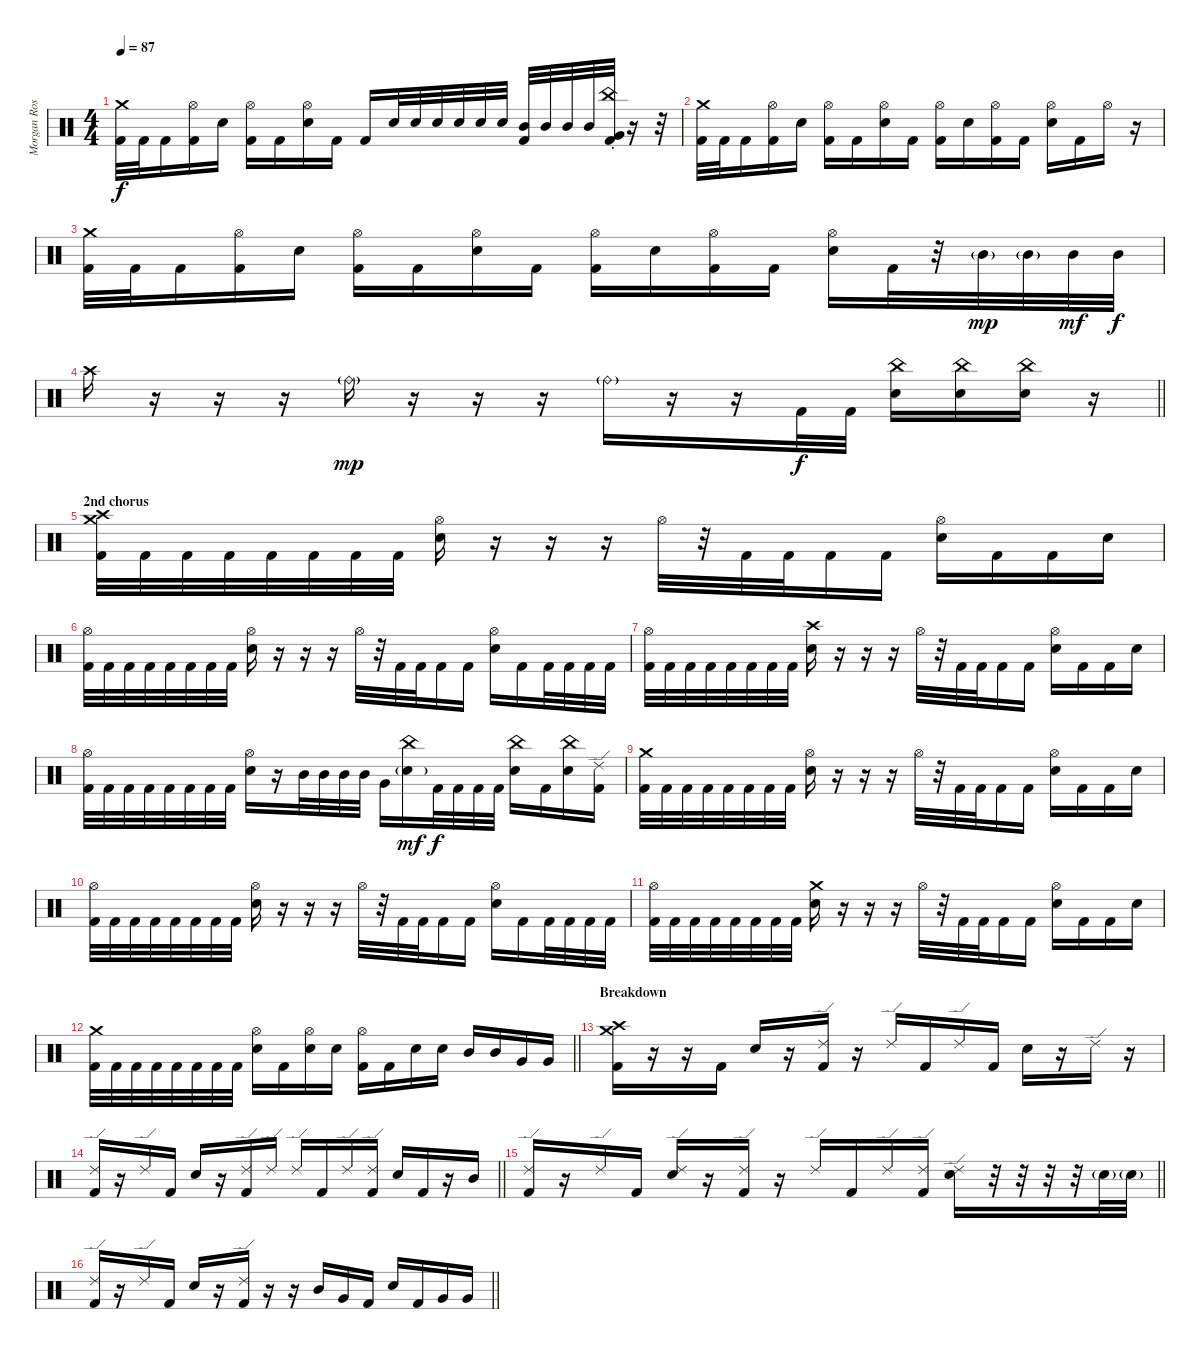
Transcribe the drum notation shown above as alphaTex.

\track ("Morgan Rose" "Morgan Ros") {instrument percussion}
\staff {score}
\articulation defaults
\ts (4 4)
\tempo 87
\clef neutral
\ks c
("Crash medium (hit)" "Kick (hit) 2").32{dy f} "Kick (hit) 2".32 "Kick (hit) 2".16 ("Hi-Hat (open)" "Kick (hit) 2").16 "Snare (hit) 2".16 ("Hi-Hat (open)" "Kick (hit) 2").16 "Kick (hit) 2".16 ("Hi-Hat (open)" "Snare (hit) 2").16 "Kick (hit) 2".16 "Kick (hit) 2".16 "Snare (hit) 2".32 "Snare (hit) 2".32 "Snare (hit) 2".32 "Snare (hit) 2".32 "Snare (hit) 2".32 "Snare (hit) 2".32 ("Mid Tom (hit)" "Kick (hit) 2").32 "Mid Tom (hit)".32 "Mid Tom (hit)".32 "Mid Tom (hit)".32 ("China (hit)"{st} "Very Low Tom (hit)" "Kick (hit) 2").32 r.16 r.32 |
("Crash medium (hit)" "Kick (hit) 2").32 "Kick (hit) 2".32 "Kick (hit) 2".16 ("Hi-Hat (open)" "Kick (hit) 2").16 "Snare (hit) 2".16 ("Hi-Hat (open)" "Kick (hit) 2").16 "Kick (hit) 2".16 ("Hi-Hat (open)" "Snare (hit) 2").16 "Kick (hit) 2".16 ("Hi-Hat (open)" "Kick (hit) 2").16 "Snare (hit) 2".16 ("Hi-Hat (open)" "Kick (hit) 2").16 "Kick (hit) 2".16 ("Hi-Hat (open)" "Snare (hit) 2").16 "Kick (hit) 2".16 "Hi-Hat (open)".16 r.16 |
("Crash medium (hit)" "Kick (hit) 2").32 "Kick (hit) 2".32 "Kick (hit) 2".16 ("Hi-Hat (open)" "Kick (hit) 2").16 "Snare (hit) 2".16 ("Hi-Hat (open)" "Kick (hit) 2").16 "Kick (hit) 2".16 ("Hi-Hat (open)" "Snare (hit) 2").16 "Kick (hit) 2".16 ("Hi-Hat (open)" "Kick (hit) 2").16 "Snare (hit) 2".16 ("Hi-Hat (open)" "Kick (hit) 2").16 "Kick (hit) 2".16 ("Hi-Hat (open)" "Snare (hit) 2").16 "Kick (hit) 2".32 r.32 "Mid Tom (hit)"{g}.32{dy mp} "Mid Tom (hit)"{g}.32 "Mid Tom (hit)".32{dy mf} "Mid Tom (hit)".32{dy f} |
\barLineRight lightlight "Crash high (hit)".16
r.16 r.16 r.16 "Ride (bell)"{g}.16{dy mp} r.16 r.16 r.16 "Ride (bell)"{g}.16 r.16 r.16 "Kick (hit) 2".32{dy f} "Kick (hit) 2".32 ("China (hit)" "Snare (hit) 2").16 ("China (hit)" "Snare (hit) 2").16 ("China (hit)" "Snare (hit) 2").16 r.16 |
\section ("" "2nd chorus")
("Crash medium (hit)" "Crash high (hit)" "Kick (hit) 2").32 "Kick (hit) 2".32 "Kick (hit) 2".32 "Kick (hit) 2".32 "Kick (hit) 2".32 "Kick (hit) 2".32 "Kick (hit) 2".32 "Kick (hit) 2".32 ("Hi-Hat (open)" "Snare (hit) 2").16 r.16 r.16 r.16 "Hi-Hat (open)".32 r.32 "Kick (hit) 2".32 "Kick (hit) 2".32 "Kick (hit) 2".16 "Kick (hit) 2".16 ("Hi-Hat (open)" "Snare (hit) 2").16 "Kick (hit) 2".16 "Kick (hit) 2".16 "Snare (hit) 2".16 |
("Hi-Hat (open)" "Kick (hit) 2").32 "Kick (hit) 2".32 "Kick (hit) 2".32 "Kick (hit) 2".32 "Kick (hit) 2".32 "Kick (hit) 2".32 "Kick (hit) 2".32 "Kick (hit) 2".32 ("Hi-Hat (open)" "Snare (hit) 2").16 r.16 r.16 r.16 "Hi-Hat (open)".32 r.32 "Kick (hit) 2".32 "Kick (hit) 2".32 "Kick (hit) 2".16 "Kick (hit) 2".16 ("Hi-Hat (open)" "Snare (hit) 2").16 "Kick (hit) 2".16 "Kick (hit) 2".32 "Kick (hit) 2".32 "Kick (hit) 2".32 "Kick (hit) 2".32 |
("Hi-Hat (open)" "Kick (hit) 2").32 "Kick (hit) 2".32 "Kick (hit) 2".32 "Kick (hit) 2".32 "Kick (hit) 2".32 "Kick (hit) 2".32 "Kick (hit) 2".32 "Kick (hit) 2".32 ("Crash high (hit)" "Snare (hit) 2").16 r.16 r.16 r.16 "Hi-Hat (open)".32 r.32 "Kick (hit) 2".32 "Kick (hit) 2".32 "Kick (hit) 2".16 "Kick (hit) 2".16 ("Hi-Hat (open)" "Snare (hit) 2").16 "Kick (hit) 2".16 "Kick (hit) 2".16 "Snare (hit) 2".16 |
("Hi-Hat (open)" "Kick (hit) 2").32 "Kick (hit) 2".32 "Kick (hit) 2".32 "Kick (hit) 2".32 "Kick (hit) 2".32 "Kick (hit) 2".32 "Kick (hit) 2".32 "Kick (hit) 2".32 ("Hi-Hat (open)" "Snare (hit) 2").16 r.16 "Mid Tom (hit)".32 "Mid Tom (hit)".32 "Mid Tom (hit)".32 "Mid Tom (hit)".32 "Very Low Tom (hit)".16 ("China (hit)" "Snare (hit) 2"{g}).16{dy mf} "Kick (hit) 2".32{dy f} "Kick (hit) 2".32 "Kick (hit) 2".32 "Kick (hit) 2".32 ("China (hit)" "Snare (hit) 2").16 "Kick (hit) 2".16 ("China (hit)" "Snare (hit) 2").16 ("Ride (edge) 2" "Kick (hit) 2").16 |
("Crash medium (hit)" "Kick (hit) 2").32 "Kick (hit) 2".32 "Kick (hit) 2".32 "Kick (hit) 2".32 "Kick (hit) 2".32 "Kick (hit) 2".32 "Kick (hit) 2".32 "Kick (hit) 2".32 ("Hi-Hat (open)" "Snare (hit) 2").16 r.16 r.16 r.16 "Hi-Hat (open)".32 r.32 "Kick (hit) 2".32 "Kick (hit) 2".32 "Kick (hit) 2".16 "Kick (hit) 2".16 ("Hi-Hat (open)" "Snare (hit) 2").16 "Kick (hit) 2".16 "Kick (hit) 2".16 "Snare (hit) 2".16 |
("Hi-Hat (open)" "Kick (hit) 2").32 "Kick (hit) 2".32 "Kick (hit) 2".32 "Kick (hit) 2".32 "Kick (hit) 2".32 "Kick (hit) 2".32 "Kick (hit) 2".32 "Kick (hit) 2".32 ("Hi-Hat (open)" "Snare (hit) 2").16 r.16 r.16 r.16 "Hi-Hat (open)".32 r.32 "Kick (hit) 2".32 "Kick (hit) 2".32 "Kick (hit) 2".16 "Kick (hit) 2".16 ("Hi-Hat (open)" "Snare (hit) 2").16 "Kick (hit) 2".16 "Kick (hit) 2".32 "Kick (hit) 2".32 "Kick (hit) 2".32 "Kick (hit) 2".32 |
("Hi-Hat (open)" "Kick (hit) 2").32 "Kick (hit) 2".32 "Kick (hit) 2".32 "Kick (hit) 2".32 "Kick (hit) 2".32 "Kick (hit) 2".32 "Kick (hit) 2".32 "Kick (hit) 2".32 ("Crash medium (hit)" "Snare (hit) 2").16 r.16 r.16 r.16 "Hi-Hat (open)".32 r.32 "Kick (hit) 2".32 "Kick (hit) 2".32 "Kick (hit) 2".16 "Kick (hit) 2".16 ("Hi-Hat (open)" "Snare (hit) 2").16 "Kick (hit) 2".16 "Kick (hit) 2".16 "Snare (hit) 2".16 |
\barLineRight lightlight
("Crash medium (hit)" "Kick (hit) 2").32 "Kick (hit) 2".32 "Kick (hit) 2".32 "Kick (hit) 2".32 "Kick (hit) 2".32 "Kick (hit) 2".32 "Kick (hit) 2".32 "Kick (hit) 2".32 ("Hi-Hat (open)" "Snare (hit) 2").16 "Kick (hit) 2".16 ("Hi-Hat (open)" "Snare (hit) 2").16 "Snare (hit) 2".16 ("Hi-Hat (open)" "Kick (hit) 2").16 "Kick (hit) 2".16 "Snare (hit) 2".16 "Snare (hit) 2".16 "Mid Tom (hit)".16 "Mid Tom (hit)".16 "Very Low Tom (hit)".16 "Very Low Tom (hit)".16 |
\section ("" "Breakdown")
("Crash medium (hit)" "Crash high (hit)" "Kick (hit) 2").16 r.16 r.16 "Kick (hit) 2".16 "Snare (hit) 2".16 r.16 ("Ride (edge) 2" "Kick (hit) 2").16 r.16 "Ride (edge) 2".16 "Kick (hit) 2".16 "Ride (edge) 2".16 "Kick (hit) 2".16 "Snare (hit) 2".16 r.16 "Ride (edge) 2".16 r.16 |
\barLineRight lightlight
("Ride (edge) 2" "Kick (hit) 2").16 r.16 "Ride (edge) 2".16 "Kick (hit) 2".16 "Snare (hit) 2".16 r.16 ("Ride (edge) 2" "Kick (hit) 2").16 "Ride (edge) 2".16 "Ride (edge) 2".16 "Kick (hit) 2".16 "Ride (edge) 2".16 ("Ride (edge) 2" "Kick (hit) 2").16 "Snare (hit) 2".16 "Kick (hit) 2".16 r.16 "Mid Tom (hit)".16 |
\barLineRight lightlight
("Ride (edge) 2" "Kick (hit) 2").16 r.16 "Ride (edge) 2".16 "Kick (hit) 2".16 ("Ride (edge) 2" "Snare (hit) 2").16 r.16 ("Ride (edge) 2" "Kick (hit) 2").16 r.16 "Ride (edge) 2".16 "Kick (hit) 2".16 "Ride (edge) 2".16 ("Ride (edge) 2" "Kick (hit) 2").16 ("Ride (edge) 2" "Snare (hit) 2").16 r.32 r.32 r.32 r.32 "Snare (hit) 2"{g}.32 "Snare (hit) 2"{g}.32 |
\barLineRight lightlight
("Ride (edge) 2" "Kick (hit) 2").16 r.16 "Ride (edge) 2".16 "Kick (hit) 2".16 "Snare (hit) 2".16 r.16 ("Ride (edge) 2" "Kick (hit) 2").16 r.16 r.16 "Mid Tom (hit)".16 "Very Low Tom (hit)".16 "Kick (hit) 2".16 "Snare (hit) 2".16 "Kick (hit) 2".16 "Very Low Tom (hit)".16 "Very Low Tom (hit)".16
